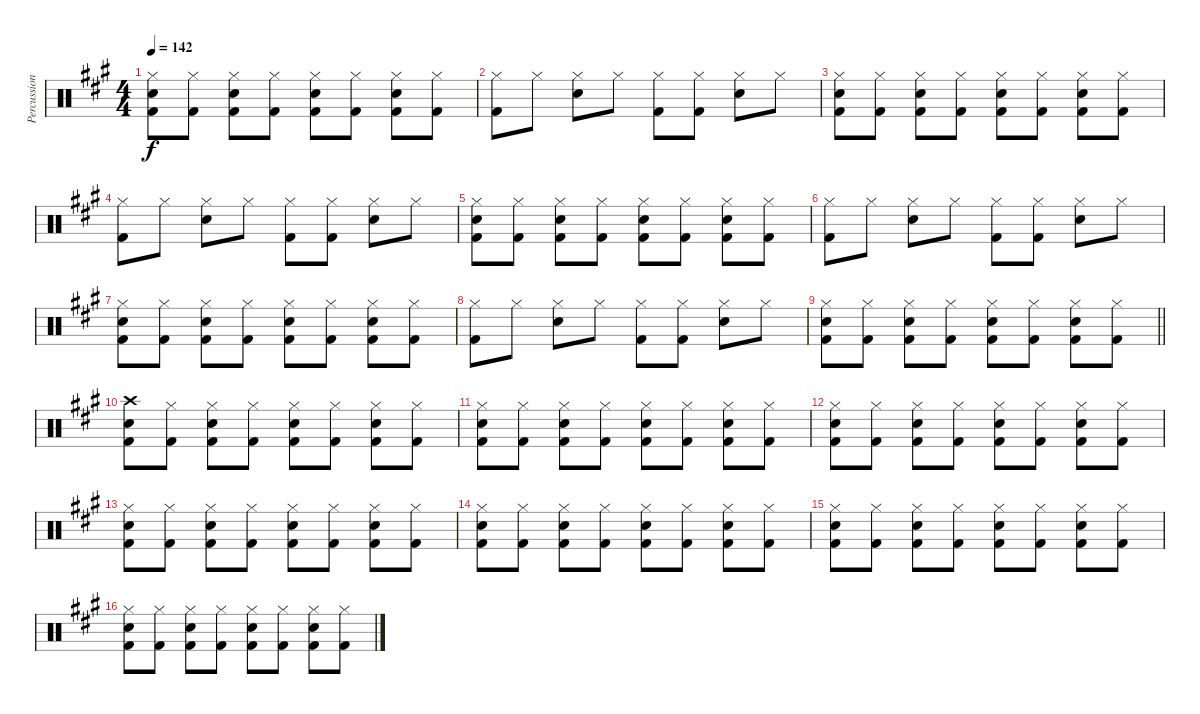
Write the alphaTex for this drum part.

\track ("Percussion" "Percussion") {instrument percussion}
\staff {score}
\articulation defaults
\ts (4 4)
\tempo 142
\clef neutral
\ks a
("Hi-Hat (closed)" "Snare (hit) 2" "Kick (hit) 2").8{dy f} ("Hi-Hat (closed)" "Kick (hit) 2").8 ("Hi-Hat (closed)" "Snare (hit) 2" "Kick (hit) 2").8 ("Hi-Hat (closed)" "Kick (hit) 2").8 ("Hi-Hat (closed)" "Snare (hit) 2" "Kick (hit) 2").8 ("Hi-Hat (closed)" "Kick (hit) 2").8 ("Hi-Hat (closed)" "Snare (hit) 2" "Kick (hit) 2").8 ("Hi-Hat (closed)" "Kick (hit) 2").8 |
("Hi-Hat (closed)" "Kick (hit) 2").8 "Hi-Hat (closed)".8 ("Hi-Hat (closed)" "Snare (hit) 2").8 "Hi-Hat (closed)".8 ("Hi-Hat (closed)" "Kick (hit) 2").8 ("Hi-Hat (closed)" "Kick (hit) 2").8 ("Hi-Hat (closed)" "Snare (hit) 2").8 "Hi-Hat (closed)".8 |
("Hi-Hat (closed)" "Snare (hit) 2" "Kick (hit) 2").8 ("Hi-Hat (closed)" "Kick (hit) 2").8 ("Hi-Hat (closed)" "Snare (hit) 2" "Kick (hit) 2").8 ("Hi-Hat (closed)" "Kick (hit) 2").8 ("Hi-Hat (closed)" "Snare (hit) 2" "Kick (hit) 2").8 ("Hi-Hat (closed)" "Kick (hit) 2").8 ("Hi-Hat (closed)" "Snare (hit) 2" "Kick (hit) 2").8 ("Hi-Hat (closed)" "Kick (hit) 2").8 |
("Hi-Hat (closed)" "Kick (hit) 2").8 "Hi-Hat (closed)".8 ("Hi-Hat (closed)" "Snare (hit) 2").8 "Hi-Hat (closed)".8 ("Hi-Hat (closed)" "Kick (hit) 2").8 ("Hi-Hat (closed)" "Kick (hit) 2").8 ("Hi-Hat (closed)" "Snare (hit) 2").8 "Hi-Hat (closed)".8 |
("Hi-Hat (closed)" "Snare (hit) 2" "Kick (hit) 2").8 ("Hi-Hat (closed)" "Kick (hit) 2").8 ("Hi-Hat (closed)" "Snare (hit) 2" "Kick (hit) 2").8 ("Hi-Hat (closed)" "Kick (hit) 2").8 ("Hi-Hat (closed)" "Snare (hit) 2" "Kick (hit) 2").8 ("Hi-Hat (closed)" "Kick (hit) 2").8 ("Hi-Hat (closed)" "Snare (hit) 2" "Kick (hit) 2").8 ("Hi-Hat (closed)" "Kick (hit) 2").8 |
("Hi-Hat (closed)" "Kick (hit) 2").8 "Hi-Hat (closed)".8 ("Hi-Hat (closed)" "Snare (hit) 2").8 "Hi-Hat (closed)".8 ("Hi-Hat (closed)" "Kick (hit) 2").8 ("Hi-Hat (closed)" "Kick (hit) 2").8 ("Hi-Hat (closed)" "Snare (hit) 2").8 "Hi-Hat (closed)".8 |
("Hi-Hat (closed)" "Snare (hit) 2" "Kick (hit) 2").8 ("Hi-Hat (closed)" "Kick (hit) 2").8 ("Hi-Hat (closed)" "Snare (hit) 2" "Kick (hit) 2").8 ("Hi-Hat (closed)" "Kick (hit) 2").8 ("Hi-Hat (closed)" "Snare (hit) 2" "Kick (hit) 2").8 ("Hi-Hat (closed)" "Kick (hit) 2").8 ("Hi-Hat (closed)" "Snare (hit) 2" "Kick (hit) 2").8 ("Hi-Hat (closed)" "Kick (hit) 2").8 |
("Hi-Hat (closed)" "Kick (hit) 2").8 "Hi-Hat (closed)".8 ("Hi-Hat (closed)" "Snare (hit) 2").8 "Hi-Hat (closed)".8 ("Hi-Hat (closed)" "Kick (hit) 2").8 ("Hi-Hat (closed)" "Kick (hit) 2").8 ("Hi-Hat (closed)" "Snare (hit) 2").8 "Hi-Hat (closed)".8 |
\barLineRight lightlight
("Hi-Hat (closed)" "Snare (hit) 2" "Kick (hit) 2").8 ("Hi-Hat (closed)" "Kick (hit) 2").8 ("Hi-Hat (closed)" "Snare (hit) 2" "Kick (hit) 2").8 ("Hi-Hat (closed)" "Kick (hit) 2").8 ("Hi-Hat (closed)" "Snare (hit) 2" "Kick (hit) 2").8 ("Hi-Hat (closed)" "Kick (hit) 2").8 ("Hi-Hat (closed)" "Snare (hit) 2" "Kick (hit) 2").8 ("Hi-Hat (closed)" "Kick (hit) 2").8 |
("Crash high (hit)" "Snare (hit) 2" "Kick (hit) 2").8 ("Hi-Hat (closed)" "Kick (hit) 2").8 ("Hi-Hat (closed)" "Snare (hit) 2" "Kick (hit) 2").8 ("Hi-Hat (closed)" "Kick (hit) 2").8 ("Hi-Hat (closed)" "Snare (hit) 2" "Kick (hit) 2").8 ("Hi-Hat (closed)" "Kick (hit) 2").8 ("Hi-Hat (closed)" "Snare (hit) 2" "Kick (hit) 2").8 ("Hi-Hat (closed)" "Kick (hit) 2").8 |
("Hi-Hat (closed)" "Snare (hit) 2" "Kick (hit) 2").8 ("Hi-Hat (closed)" "Kick (hit) 2").8 ("Hi-Hat (closed)" "Snare (hit) 2" "Kick (hit) 2").8 ("Hi-Hat (closed)" "Kick (hit) 2").8 ("Hi-Hat (closed)" "Snare (hit) 2" "Kick (hit) 2").8 ("Hi-Hat (closed)" "Kick (hit) 2").8 ("Hi-Hat (closed)" "Snare (hit) 2" "Kick (hit) 2").8 ("Hi-Hat (closed)" "Kick (hit) 2").8 |
("Hi-Hat (closed)" "Snare (hit) 2" "Kick (hit) 2").8 ("Hi-Hat (closed)" "Kick (hit) 2").8 ("Hi-Hat (closed)" "Snare (hit) 2" "Kick (hit) 2").8 ("Hi-Hat (closed)" "Kick (hit) 2").8 ("Hi-Hat (closed)" "Snare (hit) 2" "Kick (hit) 2").8 ("Hi-Hat (closed)" "Kick (hit) 2").8 ("Hi-Hat (closed)" "Snare (hit) 2" "Kick (hit) 2").8 ("Hi-Hat (closed)" "Kick (hit) 2").8 |
("Hi-Hat (closed)" "Snare (hit) 2" "Kick (hit) 2").8 ("Hi-Hat (closed)" "Kick (hit) 2").8 ("Hi-Hat (closed)" "Snare (hit) 2" "Kick (hit) 2").8 ("Hi-Hat (closed)" "Kick (hit) 2").8 ("Hi-Hat (closed)" "Snare (hit) 2" "Kick (hit) 2").8 ("Hi-Hat (closed)" "Kick (hit) 2").8 ("Hi-Hat (closed)" "Snare (hit) 2" "Kick (hit) 2").8 ("Hi-Hat (closed)" "Kick (hit) 2").8 |
("Hi-Hat (closed)" "Snare (hit) 2" "Kick (hit) 2").8 ("Hi-Hat (closed)" "Kick (hit) 2").8 ("Hi-Hat (closed)" "Snare (hit) 2" "Kick (hit) 2").8 ("Hi-Hat (closed)" "Kick (hit) 2").8 ("Hi-Hat (closed)" "Snare (hit) 2" "Kick (hit) 2").8 ("Hi-Hat (closed)" "Kick (hit) 2").8 ("Hi-Hat (closed)" "Snare (hit) 2" "Kick (hit) 2").8 ("Hi-Hat (closed)" "Kick (hit) 2").8 |
("Hi-Hat (closed)" "Snare (hit) 2" "Kick (hit) 2").8 ("Hi-Hat (closed)" "Kick (hit) 2").8 ("Hi-Hat (closed)" "Snare (hit) 2" "Kick (hit) 2").8 ("Hi-Hat (closed)" "Kick (hit) 2").8 ("Hi-Hat (closed)" "Snare (hit) 2" "Kick (hit) 2").8 ("Hi-Hat (closed)" "Kick (hit) 2").8 ("Hi-Hat (closed)" "Snare (hit) 2" "Kick (hit) 2").8 ("Hi-Hat (closed)" "Kick (hit) 2").8 |
("Hi-Hat (closed)" "Snare (hit) 2" "Kick (hit) 2").8 ("Hi-Hat (closed)" "Kick (hit) 2").8 ("Hi-Hat (closed)" "Snare (hit) 2" "Kick (hit) 2").8 ("Hi-Hat (closed)" "Kick (hit) 2").8 ("Hi-Hat (closed)" "Snare (hit) 2" "Kick (hit) 2").8 ("Hi-Hat (closed)" "Kick (hit) 2").8 ("Hi-Hat (closed)" "Snare (hit) 2" "Kick (hit) 2").8 ("Hi-Hat (closed)" "Kick (hit) 2").8
